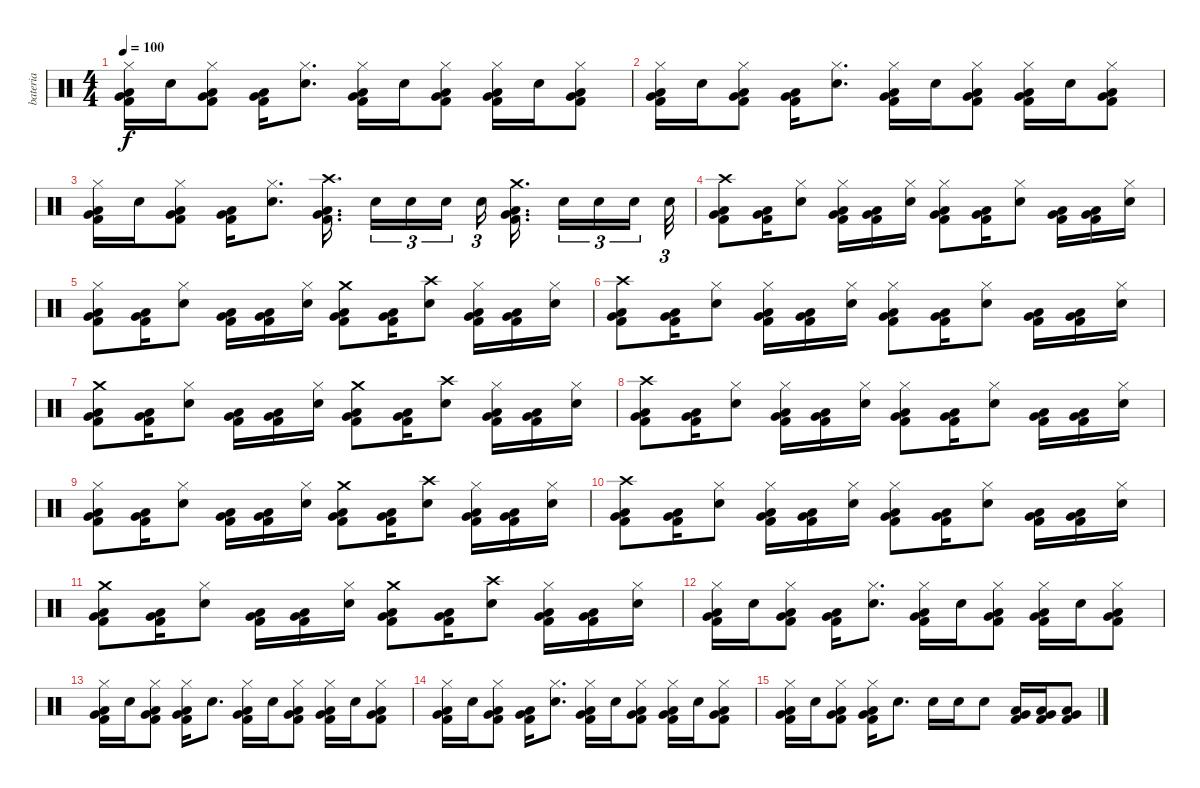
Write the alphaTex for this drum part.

\track ("bateria" "bateria") {instrument percussion}
\staff {score}
\articulation defaults
\ts (4 4)
\tempo 100
\clef neutral
\ks c
("Hi-Hat (closed)" "Kick (hit) 2" "Low Floor Tom (hit)" "Very Low Tom (hit)").16{dy f} "Electric Snare (hit)".16 ("Hi-Hat (closed)" "Kick (hit) 2" "Low Floor Tom (hit)" "Very Low Tom (hit)").8 ("Kick (hit) 2" "Low Floor Tom (hit)" "Very Low Tom (hit)").16 ("Hi-Hat (closed)" "Electric Snare (hit)").8{d} ("Hi-Hat (closed)" "Kick (hit) 2" "Low Floor Tom (hit)" "Very Low Tom (hit)").16 "Electric Snare (hit)".16 ("Hi-Hat (closed)" "Kick (hit) 2" "Low Floor Tom (hit)" "Very Low Tom (hit)").8 ("Hi-Hat (closed)" "Kick (hit) 2" "Low Floor Tom (hit)" "Very Low Tom (hit)").16 "Electric Snare (hit)".16 ("Hi-Hat (closed)" "Kick (hit) 2" "Low Floor Tom (hit)" "Very Low Tom (hit)").8 |
("Hi-Hat (closed)" "Kick (hit) 2" "Low Floor Tom (hit)" "Very Low Tom (hit)").16 "Electric Snare (hit)".16 ("Hi-Hat (closed)" "Kick (hit) 2" "Low Floor Tom (hit)" "Very Low Tom (hit)").8 ("Kick (hit) 2" "Low Floor Tom (hit)" "Very Low Tom (hit)").16 ("Hi-Hat (closed)" "Electric Snare (hit)").8{d} ("Hi-Hat (closed)" "Kick (hit) 2" "Low Floor Tom (hit)" "Very Low Tom (hit)").16 "Electric Snare (hit)".16 ("Hi-Hat (closed)" "Kick (hit) 2" "Low Floor Tom (hit)" "Very Low Tom (hit)").8 ("Hi-Hat (closed)" "Kick (hit) 2" "Low Floor Tom (hit)" "Very Low Tom (hit)").16 "Electric Snare (hit)".16 ("Hi-Hat (closed)" "Kick (hit) 2" "Low Floor Tom (hit)" "Very Low Tom (hit)").8 |
("Hi-Hat (closed)" "Kick (hit) 2" "Low Floor Tom (hit)" "Very Low Tom (hit)").16 "Electric Snare (hit)".16 ("Hi-Hat (closed)" "Kick (hit) 2" "Low Floor Tom (hit)" "Very Low Tom (hit)").8 ("Kick (hit) 2" "Low Floor Tom (hit)" "Very Low Tom (hit)").16 ("Hi-Hat (closed)" "Electric Snare (hit)").8{d} ("Crash high (hit)" "Kick (hit) 2" "Low Floor Tom (hit)" "Very Low Tom (hit)").16{d beam splitsecondary} "Electric Snare (hit)".16{tu (3 2)} "Electric Snare (hit)".16{tu (3 2)} "Electric Snare (hit)".16{tu (3 2) beam splitsecondary} "Electric Snare (hit)".16{tu (3 2)} ("Crash medium (hit)" "Kick (hit) 2" "Low Floor Tom (hit)" "Very Low Tom (hit)").16{d beam splitsecondary} "Electric Snare (hit)".16{tu (3 2)} "Electric Snare (hit)".16{tu (3 2)} "Electric Snare (hit)".16{tu (3 2) beam splitsecondary} "Electric Snare (hit)".32{tu (3 2)} |
("Crash high (hit)" "Kick (hit) 2" "Low Floor Tom (hit)" "Very Low Tom (hit)").8 ("Kick (hit) 2" "Low Floor Tom (hit)" "Very Low Tom (hit)").16 ("Hi-Hat (closed)" "Electric Snare (hit)").8 ("Hi-Hat (closed)" "Kick (hit) 2" "Low Floor Tom (hit)" "Very Low Tom (hit)").16 ("Kick (hit) 2" "Low Floor Tom (hit)" "Very Low Tom (hit)").16 ("Hi-Hat (closed)" "Electric Snare (hit)").16 ("Hi-Hat (closed)" "Kick (hit) 2" "Low Floor Tom (hit)" "Very Low Tom (hit)").8 ("Kick (hit) 2" "Low Floor Tom (hit)" "Very Low Tom (hit)").16 ("Hi-Hat (closed)" "Electric Snare (hit)").8 ("Kick (hit) 2" "Low Floor Tom (hit)" "Very Low Tom (hit)").16 ("Kick (hit) 2" "Low Floor Tom (hit)" "Very Low Tom (hit)").16 ("Hi-Hat (closed)" "Electric Snare (hit)").16 |
("Hi-Hat (closed)" "Kick (hit) 2" "Low Floor Tom (hit)" "Very Low Tom (hit)").8 ("Kick (hit) 2" "Low Floor Tom (hit)" "Very Low Tom (hit)").16 ("Hi-Hat (closed)" "Electric Snare (hit)").8 ("Kick (hit) 2" "Low Floor Tom (hit)" "Very Low Tom (hit)").16 ("Kick (hit) 2" "Low Floor Tom (hit)" "Very Low Tom (hit)").16 ("Hi-Hat (closed)" "Electric Snare (hit)").16 ("Crash medium (hit)" "Kick (hit) 2" "Low Floor Tom (hit)" "Very Low Tom (hit)").8 ("Kick (hit) 2" "Low Floor Tom (hit)" "Very Low Tom (hit)").16 ("Crash high (hit)" "Electric Snare (hit)").8 ("Hi-Hat (closed)" "Kick (hit) 2" "Low Floor Tom (hit)" "Very Low Tom (hit)").16 ("Kick (hit) 2" "Low Floor Tom (hit)" "Very Low Tom (hit)").16 ("Hi-Hat (closed)" "Electric Snare (hit)").16 |
("Crash high (hit)" "Kick (hit) 2" "Low Floor Tom (hit)" "Very Low Tom (hit)").8 ("Kick (hit) 2" "Low Floor Tom (hit)" "Very Low Tom (hit)").16 ("Hi-Hat (closed)" "Electric Snare (hit)").8 ("Hi-Hat (closed)" "Kick (hit) 2" "Low Floor Tom (hit)" "Very Low Tom (hit)").16 ("Kick (hit) 2" "Low Floor Tom (hit)" "Very Low Tom (hit)").16 ("Hi-Hat (closed)" "Electric Snare (hit)").16 ("Hi-Hat (closed)" "Kick (hit) 2" "Low Floor Tom (hit)" "Very Low Tom (hit)").8 ("Kick (hit) 2" "Low Floor Tom (hit)" "Very Low Tom (hit)").16 ("Hi-Hat (closed)" "Electric Snare (hit)").8 ("Kick (hit) 2" "Low Floor Tom (hit)" "Very Low Tom (hit)").16 ("Kick (hit) 2" "Low Floor Tom (hit)" "Very Low Tom (hit)").16 ("Hi-Hat (closed)" "Electric Snare (hit)").16 |
("Crash medium (hit)" "Kick (hit) 2" "Low Floor Tom (hit)" "Very Low Tom (hit)").8 ("Kick (hit) 2" "Low Floor Tom (hit)" "Very Low Tom (hit)").16 ("Hi-Hat (closed)" "Electric Snare (hit)").8 ("Kick (hit) 2" "Low Floor Tom (hit)" "Very Low Tom (hit)").16 ("Kick (hit) 2" "Low Floor Tom (hit)" "Very Low Tom (hit)").16 ("Hi-Hat (closed)" "Electric Snare (hit)").16 ("Crash medium (hit)" "Kick (hit) 2" "Low Floor Tom (hit)" "Very Low Tom (hit)").8 ("Kick (hit) 2" "Low Floor Tom (hit)" "Very Low Tom (hit)").16 ("Crash high (hit)" "Electric Snare (hit)").8 ("Hi-Hat (closed)" "Kick (hit) 2" "Low Floor Tom (hit)" "Very Low Tom (hit)").16 ("Kick (hit) 2" "Low Floor Tom (hit)" "Very Low Tom (hit)").16 ("Hi-Hat (closed)" "Electric Snare (hit)").16 |
("Crash high (hit)" "Kick (hit) 2" "Low Floor Tom (hit)" "Very Low Tom (hit)").8 ("Kick (hit) 2" "Low Floor Tom (hit)" "Very Low Tom (hit)").16 ("Hi-Hat (closed)" "Electric Snare (hit)").8 ("Hi-Hat (closed)" "Kick (hit) 2" "Low Floor Tom (hit)" "Very Low Tom (hit)").16 ("Kick (hit) 2" "Low Floor Tom (hit)" "Very Low Tom (hit)").16 ("Hi-Hat (closed)" "Electric Snare (hit)").16 ("Hi-Hat (closed)" "Kick (hit) 2" "Low Floor Tom (hit)" "Very Low Tom (hit)").8 ("Kick (hit) 2" "Low Floor Tom (hit)" "Very Low Tom (hit)").16 ("Hi-Hat (closed)" "Electric Snare (hit)").8 ("Kick (hit) 2" "Low Floor Tom (hit)" "Very Low Tom (hit)").16 ("Kick (hit) 2" "Low Floor Tom (hit)" "Very Low Tom (hit)").16 ("Hi-Hat (closed)" "Electric Snare (hit)").16 |
("Hi-Hat (closed)" "Kick (hit) 2" "Low Floor Tom (hit)" "Very Low Tom (hit)").8 ("Kick (hit) 2" "Low Floor Tom (hit)" "Very Low Tom (hit)").16 ("Hi-Hat (closed)" "Electric Snare (hit)").8 ("Kick (hit) 2" "Low Floor Tom (hit)" "Very Low Tom (hit)").16 ("Kick (hit) 2" "Low Floor Tom (hit)" "Very Low Tom (hit)").16 ("Hi-Hat (closed)" "Electric Snare (hit)").16 ("Crash medium (hit)" "Kick (hit) 2" "Low Floor Tom (hit)" "Very Low Tom (hit)").8 ("Kick (hit) 2" "Low Floor Tom (hit)" "Very Low Tom (hit)").16 ("Crash high (hit)" "Electric Snare (hit)").8 ("Hi-Hat (closed)" "Kick (hit) 2" "Low Floor Tom (hit)" "Very Low Tom (hit)").16 ("Kick (hit) 2" "Low Floor Tom (hit)" "Very Low Tom (hit)").16 ("Hi-Hat (closed)" "Electric Snare (hit)").16 |
("Crash high (hit)" "Kick (hit) 2" "Low Floor Tom (hit)" "Very Low Tom (hit)").8 ("Kick (hit) 2" "Low Floor Tom (hit)" "Very Low Tom (hit)").16 ("Hi-Hat (closed)" "Electric Snare (hit)").8 ("Hi-Hat (closed)" "Kick (hit) 2" "Low Floor Tom (hit)" "Very Low Tom (hit)").16 ("Kick (hit) 2" "Low Floor Tom (hit)" "Very Low Tom (hit)").16 ("Hi-Hat (closed)" "Electric Snare (hit)").16 ("Hi-Hat (closed)" "Kick (hit) 2" "Low Floor Tom (hit)" "Very Low Tom (hit)").8 ("Kick (hit) 2" "Low Floor Tom (hit)" "Very Low Tom (hit)").16 ("Hi-Hat (closed)" "Electric Snare (hit)").8 ("Kick (hit) 2" "Low Floor Tom (hit)" "Very Low Tom (hit)").16 ("Kick (hit) 2" "Low Floor Tom (hit)" "Very Low Tom (hit)").16 ("Hi-Hat (closed)" "Electric Snare (hit)").16 |
("Crash medium (hit)" "Kick (hit) 2" "Low Floor Tom (hit)" "Very Low Tom (hit)").8 ("Kick (hit) 2" "Low Floor Tom (hit)" "Very Low Tom (hit)").16 ("Hi-Hat (closed)" "Electric Snare (hit)").8 ("Kick (hit) 2" "Low Floor Tom (hit)" "Very Low Tom (hit)").16 ("Kick (hit) 2" "Low Floor Tom (hit)" "Very Low Tom (hit)").16 ("Hi-Hat (closed)" "Electric Snare (hit)").16 ("Crash medium (hit)" "Kick (hit) 2" "Low Floor Tom (hit)" "Very Low Tom (hit)").8 ("Kick (hit) 2" "Low Floor Tom (hit)" "Very Low Tom (hit)").16 ("Crash high (hit)" "Electric Snare (hit)").8 ("Hi-Hat (closed)" "Kick (hit) 2" "Low Floor Tom (hit)" "Very Low Tom (hit)").16 ("Kick (hit) 2" "Low Floor Tom (hit)" "Very Low Tom (hit)").16 ("Hi-Hat (closed)" "Electric Snare (hit)").16 |
("Hi-Hat (closed)" "Kick (hit) 2" "Low Floor Tom (hit)" "Very Low Tom (hit)").16 "Electric Snare (hit)".16 ("Hi-Hat (closed)" "Kick (hit) 2" "Low Floor Tom (hit)" "Very Low Tom (hit)").8 ("Kick (hit) 2" "Low Floor Tom (hit)" "Very Low Tom (hit)").16 ("Hi-Hat (closed)" "Electric Snare (hit)").8{d} ("Hi-Hat (closed)" "Kick (hit) 2" "Low Floor Tom (hit)" "Very Low Tom (hit)").16 "Electric Snare (hit)".16 ("Hi-Hat (closed)" "Kick (hit) 2" "Low Floor Tom (hit)" "Very Low Tom (hit)").8 ("Hi-Hat (closed)" "Kick (hit) 2" "Low Floor Tom (hit)" "Very Low Tom (hit)").16 "Electric Snare (hit)".16 ("Hi-Hat (closed)" "Kick (hit) 2" "Low Floor Tom (hit)" "Very Low Tom (hit)").8 |
("Hi-Hat (closed)" "Kick (hit) 2" "Low Floor Tom (hit)" "Very Low Tom (hit)").16 "Electric Snare (hit)".16 ("Hi-Hat (closed)" "Kick (hit) 2" "Low Floor Tom (hit)" "Very Low Tom (hit)").8 ("Hi-Hat (closed)" "Kick (hit) 2" "Low Floor Tom (hit)" "Very Low Tom (hit)").16 "Electric Snare (hit)".8{d} ("Hi-Hat (closed)" "Kick (hit) 2" "Low Floor Tom (hit)" "Very Low Tom (hit)").16 "Electric Snare (hit)".16 ("Hi-Hat (closed)" "Kick (hit) 2" "Low Floor Tom (hit)" "Very Low Tom (hit)").8 ("Hi-Hat (closed)" "Kick (hit) 2" "Low Floor Tom (hit)" "Very Low Tom (hit)").16 "Electric Snare (hit)".16 ("Hi-Hat (closed)" "Kick (hit) 2" "Low Floor Tom (hit)" "Very Low Tom (hit)").8 |
("Hi-Hat (closed)" "Kick (hit) 2" "Low Floor Tom (hit)" "Very Low Tom (hit)").16 "Electric Snare (hit)".16 ("Hi-Hat (closed)" "Kick (hit) 2" "Low Floor Tom (hit)" "Very Low Tom (hit)").8 ("Kick (hit) 2" "Low Floor Tom (hit)" "Very Low Tom (hit)").16 ("Hi-Hat (closed)" "Electric Snare (hit)").8{d} ("Hi-Hat (closed)" "Kick (hit) 2" "Low Floor Tom (hit)" "Very Low Tom (hit)").16 "Electric Snare (hit)".16 ("Hi-Hat (closed)" "Kick (hit) 2" "Low Floor Tom (hit)" "Very Low Tom (hit)").8 ("Hi-Hat (closed)" "Kick (hit) 2" "Low Floor Tom (hit)" "Very Low Tom (hit)").16 "Electric Snare (hit)".16 ("Hi-Hat (closed)" "Kick (hit) 2" "Low Floor Tom (hit)" "Very Low Tom (hit)").8 |
("Hi-Hat (closed)" "Kick (hit) 2" "Low Floor Tom (hit)" "Very Low Tom (hit)").16 "Electric Snare (hit)".16 ("Hi-Hat (closed)" "Kick (hit) 2" "Low Floor Tom (hit)" "Very Low Tom (hit)").8 ("Hi-Hat (closed)" "Kick (hit) 2" "Low Floor Tom (hit)" "Very Low Tom (hit)").16 "Electric Snare (hit)".8{d} "Electric Snare (hit)".16 "Electric Snare (hit)".16 "Electric Snare (hit)".8 ("Kick (hit) 2" "Low Floor Tom (hit)" "Very Low Tom (hit)").16 ("Kick (hit) 2" "Low Floor Tom (hit)" "Very Low Tom (hit)").16 ("Kick (hit) 2" "Low Floor Tom (hit)" "Very Low Tom (hit)").8
